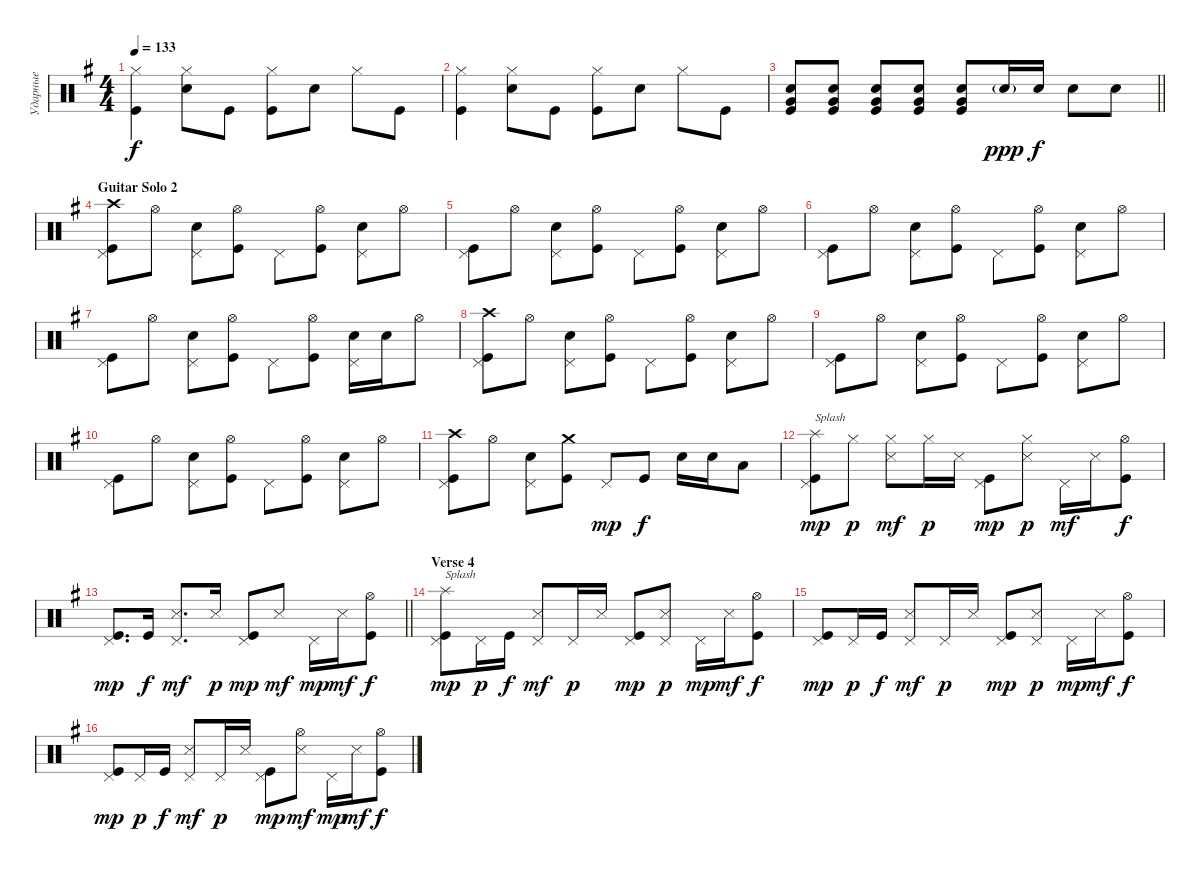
\track ("Ударные" "Ударные") {instrument percussion}
\staff {score}
\articulation defaults
\ts (4 4)
\tempo 133
\clef neutral
\ks eminor
("Kick (hit)" "Hi-Hat (closed)").4{dy f} ("Snare (hit) 2" "Hi-Hat (closed)").8 "Kick (hit)".8 ("Kick (hit)" "Hi-Hat (closed)").8 "Snare (hit) 2".8 "Hi-Hat (closed)".8 "Kick (hit)".8 |
("Kick (hit)" "Hi-Hat (closed)").4 ("Snare (hit) 2" "Hi-Hat (closed)").8 "Kick (hit)".8 ("Kick (hit)" "Hi-Hat (closed)").8 "Snare (hit) 2".8 "Hi-Hat (closed)".8 "Kick (hit)".8 |
\barLineRight lightlight
("Kick (hit)" "Very Low Tom (hit)" "Snare (hit) 2").8{bd 60} ("Kick (hit)" "Very Low Tom (hit)" "Snare (hit) 2").8{bd 60} ("Kick (hit)" "Very Low Tom (hit)" "Snare (hit) 2").8{bd 60} ("Kick (hit)" "Snare (hit) 2" "Very Low Tom (hit)").8{bd 60} ("Kick (hit)" "Very Low Tom (hit)" "Snare (hit) 2").8{bd 60} "Snare (hit) 2"{g}.16{dy ppp} "Snare (hit) 2".16{dy f} "Snare (hit) 2".8 "Snare (hit) 2".8 |
\section ("" "Guitar Solo 2")
("Kick (hit)" "Pedal Hi-Hat (hit)" "Crash high (hit)").8 "Hi-Hat (open)".8 ("Pedal Hi-Hat (hit)" "Snare (hit) 2").8 ("Hi-Hat (open)" "Kick (hit)").8 "Pedal Hi-Hat (hit)".8 ("Hi-Hat (open)" "Kick (hit)").8 ("Pedal Hi-Hat (hit)" "Snare (hit) 2").8 "Hi-Hat (open)".8 |
("Kick (hit)" "Pedal Hi-Hat (hit)").8 "Hi-Hat (open)".8 ("Pedal Hi-Hat (hit)" "Snare (hit) 2").8 ("Hi-Hat (open)" "Kick (hit)").8 "Pedal Hi-Hat (hit)".8 ("Hi-Hat (open)" "Kick (hit)").8 ("Pedal Hi-Hat (hit)" "Snare (hit) 2").8 "Hi-Hat (open)".8 |
("Kick (hit)" "Pedal Hi-Hat (hit)").8 "Hi-Hat (open)".8 ("Pedal Hi-Hat (hit)" "Snare (hit) 2").8 ("Hi-Hat (open)" "Kick (hit)").8 "Pedal Hi-Hat (hit)".8 ("Hi-Hat (open)" "Kick (hit)").8 ("Pedal Hi-Hat (hit)" "Snare (hit) 2").8 "Hi-Hat (open)".8 |
("Kick (hit)" "Pedal Hi-Hat (hit)").8 "Hi-Hat (open)".8 ("Pedal Hi-Hat (hit)" "Snare (hit) 2").8 ("Hi-Hat (open)" "Kick (hit)").8 "Pedal Hi-Hat (hit)".8 ("Hi-Hat (open)" "Kick (hit)").8 ("Pedal Hi-Hat (hit)" "Snare (hit) 2").16 "Snare (hit) 2".16 "Hi-Hat (open)".8 |
("Kick (hit)" "Pedal Hi-Hat (hit)" "Crash high (hit)").8 "Hi-Hat (open)".8 ("Pedal Hi-Hat (hit)" "Snare (hit) 2").8 ("Hi-Hat (open)" "Kick (hit)").8 "Pedal Hi-Hat (hit)".8 ("Hi-Hat (open)" "Kick (hit)").8 ("Pedal Hi-Hat (hit)" "Snare (hit) 2").8 "Hi-Hat (open)".8 |
("Kick (hit)" "Pedal Hi-Hat (hit)").8 "Hi-Hat (open)".8 ("Pedal Hi-Hat (hit)" "Snare (hit) 2").8 ("Hi-Hat (open)" "Kick (hit)").8 "Pedal Hi-Hat (hit)".8 ("Hi-Hat (open)" "Kick (hit)").8 ("Pedal Hi-Hat (hit)" "Snare (hit) 2").8 "Hi-Hat (open)".8 |
("Kick (hit)" "Pedal Hi-Hat (hit)").8 "Hi-Hat (open)".8 ("Pedal Hi-Hat (hit)" "Snare (hit) 2").8 ("Hi-Hat (open)" "Kick (hit)").8 "Pedal Hi-Hat (hit)".8 ("Hi-Hat (open)" "Kick (hit)").8 ("Pedal Hi-Hat (hit)" "Snare (hit) 2").8 "Hi-Hat (open)".8 |
("Pedal Hi-Hat (hit)" "Kick (hit)" "Crash high (hit)").8 "Hi-Hat (open)".8 ("Snare (hit) 2" "Pedal Hi-Hat (hit)").8 ("Kick (hit)" "Crash medium (hit)").8 "Pedal Hi-Hat (hit)".8{dy mp} "Kick (hit)".8{dy f} "Snare (hit) 2".16 "Snare (hit) 2".16 "Low Tom (hit)".8 |
("Kick (hit)" "Splash (hit)" "Pedal Hi-Hat (hit)").8{txt "Splash" dy mp} "Hi-Hat (closed)".8{dy p} ("Hi-Hat (closed)" "Snare (side stick) 3").8{dy mf} "Hi-Hat (closed)".16{dy p} "Snare (side stick) 3".16 ("Kick (hit)" "Pedal Hi-Hat (hit)").8{dy mp} ("Snare (side stick) 3" "Hi-Hat (closed)").8{dy p} "Pedal Hi-Hat (hit)".16{dy mf} "Snare (side stick) 3".16 ("Kick (hit)" "Hi-Hat (open)").8{dy f} |
\barLineRight lightlight
("Pedal Hi-Hat (hit)" "Kick (hit)").8{d dy mp} "Kick (hit)".16{dy f} ("Pedal Hi-Hat (hit)" "Snare (side stick) 3").8{d dy mf} "Snare (side stick) 3".16{dy p} ("Kick (hit)" "Pedal Hi-Hat (hit)").8{dy mp} "Snare (side stick) 3".8{dy mf} "Pedal Hi-Hat (hit)".16{dy mp} "Snare (side stick) 3".16{dy mf} ("Kick (hit)" "Hi-Hat (open)").8{dy f} |
\section ("" "Verse 4")
("Pedal Hi-Hat (hit)" "Splash (hit)" "Kick (hit)").8{txt "Splash" dy mp} "Pedal Hi-Hat (hit)".16{dy p} "Kick (hit)".16{dy f} ("Pedal Hi-Hat (hit)" "Snare (side stick) 3").8{dy mf} "Pedal Hi-Hat (hit)".16{dy p} "Snare (side stick) 3".16 ("Kick (hit)" "Pedal Hi-Hat (hit)").8{dy mp} ("Snare (side stick) 3" "Pedal Hi-Hat (hit)").8{dy p} "Pedal Hi-Hat (hit)".16{dy mp} "Snare (side stick) 3".16{dy mf} ("Kick (hit)" "Hi-Hat (open)").8{dy f} |
("Kick (hit)" "Pedal Hi-Hat (hit)").8{dy mp} "Pedal Hi-Hat (hit)".16{dy p} "Kick (hit)".16{dy f} ("Pedal Hi-Hat (hit)" "Snare (side stick) 3").8{dy mf} "Pedal Hi-Hat (hit)".16{dy p} "Snare (side stick) 3".16 ("Kick (hit)" "Pedal Hi-Hat (hit)").8{dy mp} ("Snare (side stick) 3" "Pedal Hi-Hat (hit)").8{dy p} "Pedal Hi-Hat (hit)".16{dy mp} "Snare (side stick) 3".16{dy mf} ("Kick (hit)" "Hi-Hat (open)").8{dy f} |
("Kick (hit)" "Pedal Hi-Hat (hit)").8{dy mp} "Pedal Hi-Hat (hit)".16{dy p} "Kick (hit)".16{dy f} ("Pedal Hi-Hat (hit)" "Snare (side stick) 3").8{dy mf} "Pedal Hi-Hat (hit)".16{dy p} "Snare (side stick) 3".16 ("Kick (hit)" "Pedal Hi-Hat (hit)").8{dy mp} ("Snare (side stick) 3" "Hi-Hat (open)").8{dy mf} "Pedal Hi-Hat (hit)".16{dy mp} "Snare (side stick) 3".16{dy mf} ("Kick (hit)" "Hi-Hat (open)").8{dy f}
